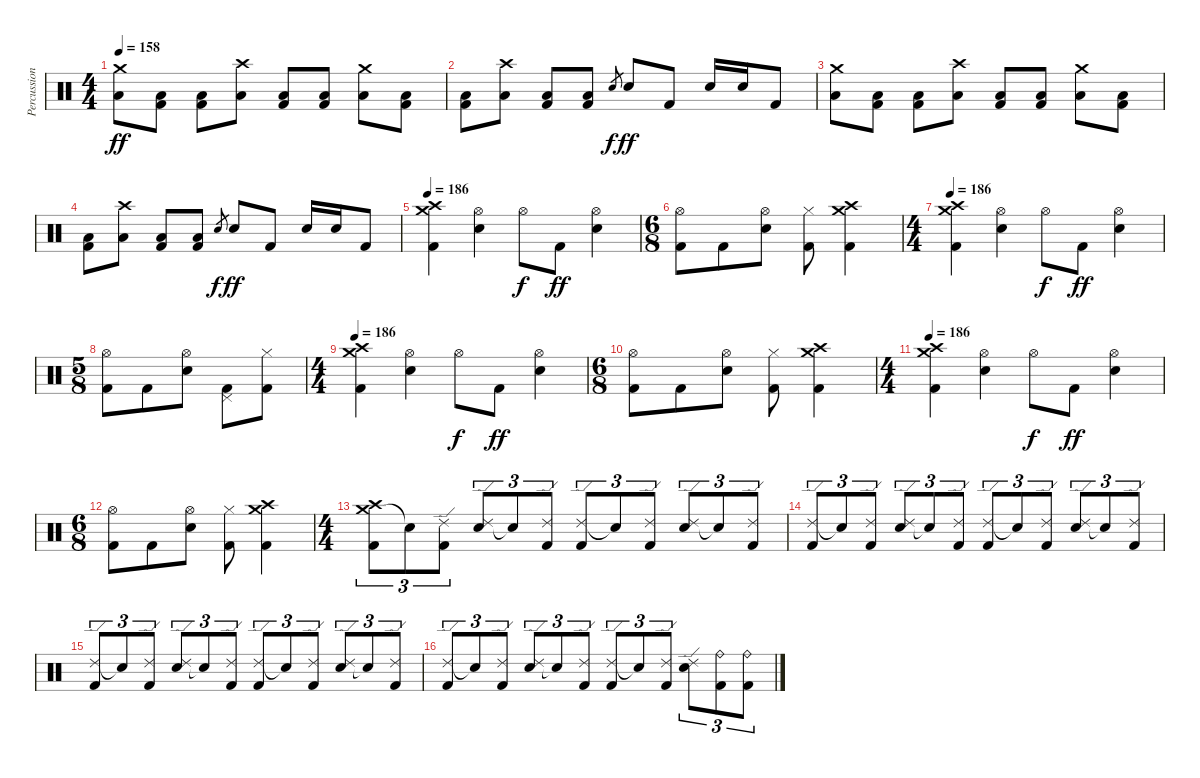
\track ("Percussion" "Percussion") {instrument percussion}
\staff {score}
\articulation defaults
\ts (4 4)
\tempo 158
\clef neutral
\ks c
("Crash medium (hit)" "Low Tom (hit)").8{dy ff} ("Low Floor Tom (hit)" "Kick (hit) 2").8 ("Low Floor Tom (hit)" "Kick (hit) 2").8 ("Crash high (hit)" "Low Tom (hit)").8 ("Low Floor Tom (hit)" "Kick (hit) 2").8 ("Low Floor Tom (hit)" "Kick (hit) 2").8 ("Crash medium (hit)" "Low Tom (hit)").8 ("Low Floor Tom (hit)" "Kick (hit) 2").8 |
("Low Floor Tom (hit)" "Kick (hit) 2").8 ("Crash high (hit)" "Low Tom (hit)").8 ("Low Floor Tom (hit)" "Kick (hit) 2").8 ("Low Floor Tom (hit)" "Kick (hit) 2").8 "Snare (hit) 2".8{gr dy f} "Electric Snare (hit)".8{dy ff} "Kick (hit) 2".8 "Snare (hit) 2".16 "Snare (hit) 2".16 "Kick (hit) 2".8 |
("Crash medium (hit)" "Low Tom (hit)").8 ("Low Floor Tom (hit)" "Kick (hit) 2").8 ("Low Floor Tom (hit)" "Kick (hit) 2").8 ("Crash high (hit)" "Low Tom (hit)").8 ("Low Floor Tom (hit)" "Kick (hit) 2").8 ("Low Floor Tom (hit)" "Kick (hit) 2").8 ("Crash medium (hit)" "Low Tom (hit)").8 ("Low Floor Tom (hit)" "Kick (hit) 2").8 |
("Low Floor Tom (hit)" "Kick (hit) 2").8 ("Crash high (hit)" "Low Tom (hit)").8 ("Low Floor Tom (hit)" "Kick (hit) 2").8 ("Low Floor Tom (hit)" "Kick (hit) 2").8 "Snare (hit) 2".8{gr dy f} "Electric Snare (hit)".8{dy ff} "Kick (hit) 2".8 "Snare (hit) 2".16 "Snare (hit) 2".16 "Kick (hit) 2".8 |
\tempo 186
("Crash medium (hit)" "Crash high (hit)" "Kick (hit) 2").4 ("Hi-Hat (open)" "Snare (hit) 2").4 "Hi-Hat (open)".8{dy f} "Kick (hit) 2".8{dy ff} ("Hi-Hat (open)" "Snare (hit) 2").4 |
\ts (6 8)
("Hi-Hat (open)" "Kick (hit) 2").8 "Kick (hit) 2".8 ("Hi-Hat (open)" "Snare (hit) 2").8 ("Hi-Hat (closed)" "Kick (hit) 2").8 ("Crash medium (hit)" "Crash high (hit)" "Kick (hit) 2").4 |
\ts (4 4)
\tempo 186
("Crash medium (hit)" "Crash high (hit)" "Kick (hit) 2").4 ("Hi-Hat (open)" "Snare (hit) 2").4 "Hi-Hat (open)".8{dy f} "Kick (hit) 2".8{dy ff} ("Hi-Hat (open)" "Snare (hit) 2").4 |
\ts (5 8)
("Hi-Hat (open)" "Kick (hit) 2").8 "Kick (hit) 2".8 ("Hi-Hat (open)" "Snare (hit) 2").8 ("Pedal Hi-Hat (hit)" "Kick (hit) 2").8 ("Hi-Hat (closed)" "Kick (hit) 2").8 |
\ts (4 4)
\tempo 186
("Crash medium (hit)" "Crash high (hit)" "Kick (hit) 2").4 ("Hi-Hat (open)" "Snare (hit) 2").4 "Hi-Hat (open)".8{dy f} "Kick (hit) 2".8{dy ff} ("Hi-Hat (open)" "Snare (hit) 2").4 |
\ts (6 8)
("Hi-Hat (open)" "Kick (hit) 2").8 "Kick (hit) 2".8 ("Hi-Hat (open)" "Snare (hit) 2").8 ("Hi-Hat (closed)" "Kick (hit) 2").8 ("Crash medium (hit)" "Crash high (hit)" "Kick (hit) 2").4 |
\ts (4 4)
\tempo 186
("Crash medium (hit)" "Crash high (hit)" "Kick (hit) 2").4 ("Hi-Hat (open)" "Snare (hit) 2").4 "Hi-Hat (open)".8{dy f} "Kick (hit) 2".8{dy ff} ("Hi-Hat (open)" "Snare (hit) 2").4 |
\ts (6 8)
("Hi-Hat (open)" "Kick (hit) 2").8 "Kick (hit) 2".8 ("Hi-Hat (open)" "Snare (hit) 2").8 ("Hi-Hat (closed)" "Kick (hit) 2").8 ("Crash medium (hit)" "Crash high (hit)" "Kick (hit) 2").4 |
\ts (4 4)
("Crash medium (hit)" "Crash high (hit)" "Kick (hit) 2").8{tu (3 2)} "Snare (hit)"{t}.8{tu (3 2)} ("Ride (edge) 2" "Kick (hit) 2").8{tu (3 2)} ("Ride (edge) 2" "Snare (hit) 2").8{tu (3 2)} "Snare (hit)"{t}.8{tu (3 2)} ("Ride (edge) 2" "Kick (hit) 2").8{tu (3 2)} ("Ride (edge) 2" "Kick (hit) 2").8{tu (3 2)} "Snare (hit)"{t}.8{tu (3 2)} ("Ride (edge) 2" "Kick (hit) 2").8{tu (3 2)} ("Ride (edge) 2" "Snare (hit) 2").8{tu (3 2)} "Snare (hit)"{t}.8{tu (3 2)} ("Ride (edge) 2" "Kick (hit) 2").8{tu (3 2)} |
("Ride (edge) 2" "Kick (hit) 2").8{tu (3 2)} "Snare (hit)"{t}.8{tu (3 2)} ("Ride (edge) 2" "Kick (hit) 2").8{tu (3 2)} ("Ride (edge) 2" "Snare (hit) 2").8{tu (3 2)} "Snare (hit)"{t}.8{tu (3 2)} ("Ride (edge) 2" "Kick (hit) 2").8{tu (3 2)} ("Ride (edge) 2" "Kick (hit) 2").8{tu (3 2)} "Snare (hit)"{t}.8{tu (3 2)} ("Ride (edge) 2" "Kick (hit) 2").8{tu (3 2)} ("Ride (edge) 2" "Snare (hit) 2").8{tu (3 2)} "Snare (hit)"{t}.8{tu (3 2)} ("Ride (edge) 2" "Kick (hit) 2").8{tu (3 2)} |
("Ride (edge) 2" "Kick (hit) 2").8{tu (3 2)} "Snare (hit)"{t}.8{tu (3 2)} ("Ride (edge) 2" "Kick (hit) 2").8{tu (3 2)} ("Ride (edge) 2" "Snare (hit) 2").8{tu (3 2)} "Snare (hit)"{t}.8{tu (3 2)} ("Ride (edge) 2" "Kick (hit) 2").8{tu (3 2)} ("Ride (edge) 2" "Kick (hit) 2").8{tu (3 2)} "Snare (hit)"{t}.8{tu (3 2)} ("Ride (edge) 2" "Kick (hit) 2").8{tu (3 2)} ("Ride (edge) 2" "Snare (hit) 2").8{tu (3 2)} "Snare (hit)"{t}.8{tu (3 2)} ("Ride (edge) 2" "Kick (hit) 2").8{tu (3 2)} |
("Ride (edge) 2" "Kick (hit) 2").8{tu (3 2)} "Snare (hit)"{t}.8{tu (3 2)} ("Ride (edge) 2" "Kick (hit) 2").8{tu (3 2)} ("Ride (edge) 2" "Snare (hit) 2").8{tu (3 2)} "Snare (hit)"{t}.8{tu (3 2)} ("Ride (edge) 2" "Kick (hit) 2").8{tu (3 2)} ("Ride (edge) 2" "Kick (hit) 2").8{tu (3 2)} "Snare (hit)"{t}.8{tu (3 2)} ("Ride (edge) 2" "Kick (hit) 2").8{tu (3 2)} ("Ride (edge) 2" "Snare (hit) 2").8{tu (3 2)} ("Ride (bell)" "Kick (hit) 2").8{tu (3 2)} ("Ride (bell)" "Kick (hit) 2").8{tu (3 2)}
